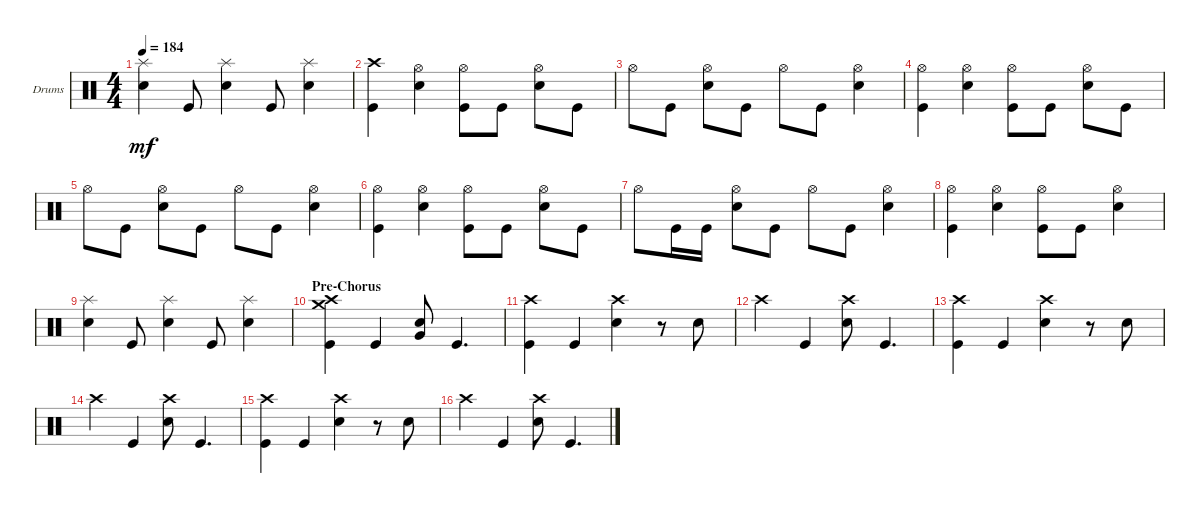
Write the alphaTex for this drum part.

\defaultSystemsLayout 4
\bracketExtendMode groupsimilarinstruments
\firstSystemTrackNameOrientation horizontal
\otherSystemsTrackNameOrientation horizontal
\track ("Drums (Phoenix)" "Drums") {instrument percussion}
\staff {score}
\articulation defaults
\ts (4 4)
\tempo 184
\clef neutral
\ks c
("Snare (hit) 2" "Splash (hit)").4{dy mf} "Kick (hit)".8 ("Snare (hit) 2" "Splash (hit)").4 "Kick (hit)".8 ("Snare (hit) 2" "Splash (hit)").4 |
("Kick (hit)" "Crash high (hit)").4 ("Snare (hit) 2" "Hi-Hat (open)").4 ("Kick (hit)" "Hi-Hat (open)").8 "Kick (hit)".8 ("Snare (hit) 2" "Hi-Hat (open)").8 "Kick (hit)".8 |
"Hi-Hat (open)".8 "Kick (hit)".8 ("Snare (hit) 2" "Hi-Hat (open)").8 "Kick (hit)".8 "Hi-Hat (open)".8 "Kick (hit)".8 ("Snare (hit) 2" "Hi-Hat (open)").4 |
("Kick (hit)" "Hi-Hat (open)").4 ("Snare (hit) 2" "Hi-Hat (open)").4 ("Kick (hit)" "Hi-Hat (open)").8 "Kick (hit)".8 ("Snare (hit) 2" "Hi-Hat (open)").8 "Kick (hit)".8 |
"Hi-Hat (open)".8 "Kick (hit)".8 ("Snare (hit) 2" "Hi-Hat (open)").8 "Kick (hit)".8 "Hi-Hat (open)".8 "Kick (hit)".8 ("Snare (hit) 2" "Hi-Hat (open)").4 |
("Kick (hit)" "Hi-Hat (open)").4 ("Snare (hit) 2" "Hi-Hat (open)").4 ("Kick (hit)" "Hi-Hat (open)").8 "Kick (hit)".8 ("Snare (hit) 2" "Hi-Hat (open)").8 "Kick (hit)".8 |
"Hi-Hat (open)".8 "Kick (hit)".16 "Kick (hit)".16 ("Snare (hit) 2" "Hi-Hat (open)").8 "Kick (hit)".8 "Hi-Hat (open)".8 "Kick (hit)".8 ("Snare (hit) 2" "Hi-Hat (open)").4 |
("Kick (hit)" "Hi-Hat (open)").4 ("Snare (hit) 2" "Hi-Hat (open)").4 ("Kick (hit)" "Hi-Hat (open)").8 "Kick (hit)".8 ("Snare (hit) 2" "Hi-Hat (open)").4 |
("Snare (hit) 2" "Splash (hit)").4 "Kick (hit)".8 ("Snare (hit) 2" "Splash (hit)").4 "Kick (hit)".8 ("Snare (hit) 2" "Splash (hit)").4 |
\section ("" "Pre-Chorus")
("Kick (hit)" "Crash high (hit)" "Crash medium (hit)").4 "Kick (hit)".4 ("Snare (hit) 2" "Very Low Tom (hit)").8 "Kick (hit)".4{d} |
("Kick (hit)" "Crash high (hit)").4 "Kick (hit)".4 ("Snare (hit) 2" "Crash high (hit)").4 r.8 "Snare (hit) 2".8 |
"Crash high (hit)".4 "Kick (hit)".4 ("Snare (hit) 2" "Crash high (hit)").8 "Kick (hit)".4{d} |
("Kick (hit)" "Crash high (hit)").4 "Kick (hit)".4 ("Snare (hit) 2" "Crash high (hit)").4 r.8 "Snare (hit) 2".8 |
"Crash high (hit)".4 "Kick (hit)".4 ("Snare (hit) 2" "Crash high (hit)").8 "Kick (hit)".4{d} |
("Kick (hit)" "Crash high (hit)").4 "Kick (hit)".4 ("Snare (hit) 2" "Crash high (hit)").4 r.8 "Snare (hit) 2".8 |
"Crash high (hit)".4 "Kick (hit)".4 ("Snare (hit) 2" "Crash high (hit)").8 "Kick (hit)".4{d}
